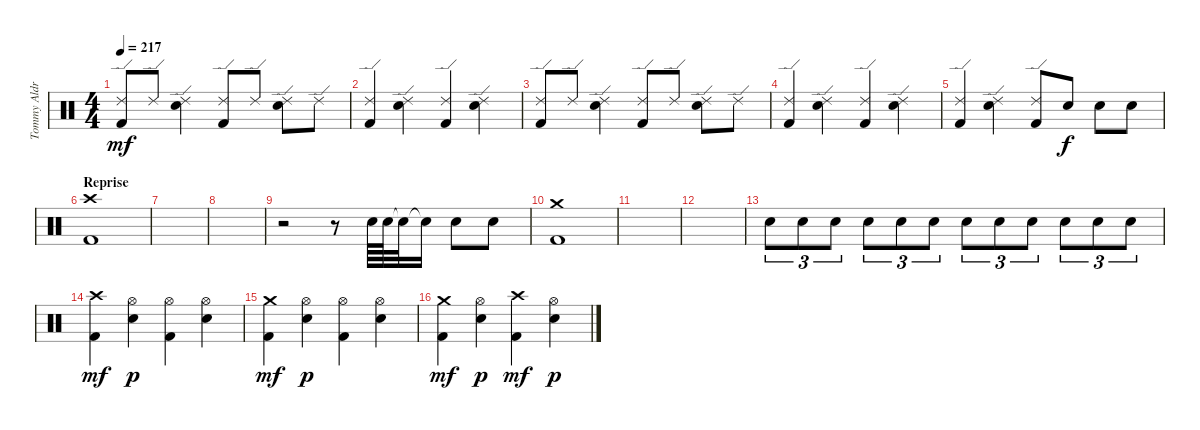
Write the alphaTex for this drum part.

\track ("Tommy Aldridge" "Tommy Aldr") {instrument percussion}
\staff {score}
\articulation defaults
\ts (4 4)
\tempo 217
\clef neutral
\ks c
("Kick (hit) 2" "Ride (edge) 2").8{dy mf} "Ride (edge) 2".8 ("Ride (edge) 2" "Snare (hit) 2").4 ("Kick (hit) 2" "Ride (edge) 2").8 "Ride (edge) 2".8 ("Ride (edge) 2" "Snare (hit) 2").8 "Ride (edge) 2".8 |
("Kick (hit) 2" "Ride (edge) 2").4 ("Ride (edge) 2" "Snare (hit) 2").4 ("Kick (hit) 2" "Ride (edge) 2").4 ("Ride (edge) 2" "Snare (hit) 2").4 |
("Kick (hit) 2" "Ride (edge) 2").8 "Ride (edge) 2".8 ("Ride (edge) 2" "Snare (hit) 2").4 ("Kick (hit) 2" "Ride (edge) 2").8 "Ride (edge) 2".8 ("Ride (edge) 2" "Snare (hit) 2").8 "Ride (edge) 2".8 |
("Kick (hit) 2" "Ride (edge) 2").4 ("Ride (edge) 2" "Snare (hit) 2").4 ("Kick (hit) 2" "Ride (edge) 2").4 ("Ride (edge) 2" "Snare (hit) 2").4 |
("Kick (hit) 2" "Ride (edge) 2").4 ("Ride (edge) 2" "Snare (hit) 2").4 ("Kick (hit) 2" "Ride (edge) 2").8 "Snare (hit) 2".8{dy f} "Snare (hit) 2".8 "Snare (hit) 2".8 |
\section ("" "Reprise")
("Kick (hit) 2" "Crash high (hit)").1 |
|
|
r.2 r.8 "Snare (hit) 2".64 "Snare (hit) 2".64 "Snare (hit)"{t}.32 "Snare (hit)"{t}.16 "Snare (hit) 2".8 "Snare (hit) 2".8 |
("Kick (hit) 2" "Crash medium (hit)").1 |
|
|
"Snare (hit) 2".8{tu (3 2)} "Snare (hit) 2".8{tu (3 2)} "Snare (hit) 2".8{tu (3 2)} "Snare (hit) 2".8{tu (3 2)} "Snare (hit) 2".8{tu (3 2)} "Snare (hit) 2".8{tu (3 2)} "Snare (hit) 2".8{tu (3 2)} "Snare (hit) 2".8{tu (3 2)} "Snare (hit) 2".8{tu (3 2)} "Snare (hit) 2".8{tu (3 2)} "Snare (hit) 2".8{tu (3 2)} "Snare (hit) 2".8{tu (3 2)} |
("Kick (hit) 2" "Crash high (hit)").4{dy mf} ("Hi-Hat (open)" "Snare (hit) 2").4{dy p} ("Kick (hit) 2" "Hi-Hat (open)").4 ("Hi-Hat (open)" "Snare (hit) 2").4 |
("Kick (hit) 2" "Crash medium (hit)").4{dy mf} ("Hi-Hat (open)" "Snare (hit) 2").4{dy p} ("Kick (hit) 2" "Hi-Hat (open)").4 ("Hi-Hat (open)" "Snare (hit) 2").4 |
("Kick (hit) 2" "Crash medium (hit)").4{dy mf} ("Hi-Hat (open)" "Snare (hit) 2").4{dy p} ("Kick (hit) 2" "Crash high (hit)").4{dy mf} ("Hi-Hat (open)" "Snare (hit) 2").4{dy p}
